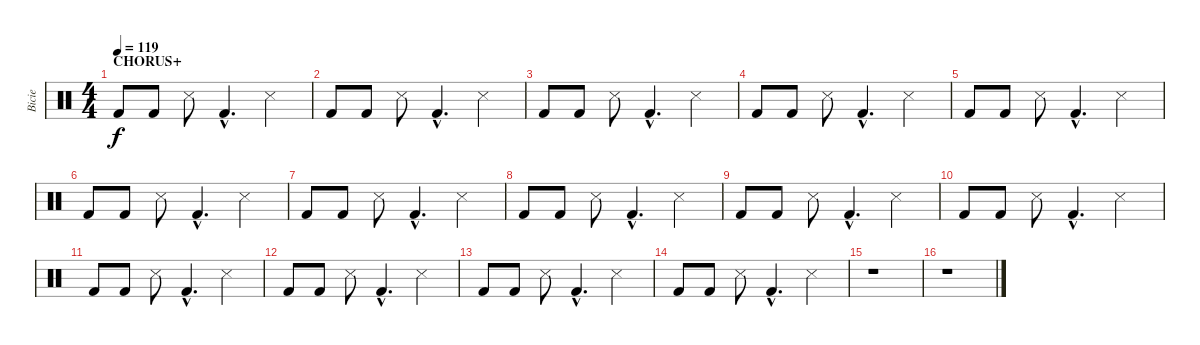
\track ("Bicie" "Bicie") {instrument percussion}
\staff {score}
\articulation defaults
\ts (4 4)
\section ("" "CHORUS+")
\tempo 119
\clef neutral
\ks c "Kick (hit) 2".8{dy f} "Kick (hit) 2".8 "Metronome (hit)".8 "Kick (hit) 2"{hac}.4{d} "Metronome (hit)".4
|
"Kick (hit) 2".8 "Kick (hit) 2".8 "Metronome (hit)".8 "Kick (hit) 2"{hac}.4{d} "Metronome (hit)".4 |
"Kick (hit) 2".8 "Kick (hit) 2".8 "Metronome (hit)".8 "Kick (hit) 2"{hac}.4{d} "Metronome (hit)".4 |
"Kick (hit) 2".8 "Kick (hit) 2".8 "Metronome (hit)".8 "Kick (hit) 2"{hac}.4{d} "Metronome (hit)".4 |
"Kick (hit) 2".8 "Kick (hit) 2".8 "Metronome (hit)".8 "Kick (hit) 2"{hac}.4{d} "Metronome (hit)".4 |
"Kick (hit) 2".8 "Kick (hit) 2".8 "Metronome (hit)".8 "Kick (hit) 2"{hac}.4{d} "Metronome (hit)".4 |
"Kick (hit) 2".8 "Kick (hit) 2".8 "Metronome (hit)".8 "Kick (hit) 2"{hac}.4{d} "Metronome (hit)".4 |
"Kick (hit) 2".8 "Kick (hit) 2".8 "Metronome (hit)".8 "Kick (hit) 2"{hac}.4{d} "Metronome (hit)".4 |
"Kick (hit) 2".8 "Kick (hit) 2".8 "Metronome (hit)".8 "Kick (hit) 2"{hac}.4{d} "Metronome (hit)".4 |
"Kick (hit) 2".8 "Kick (hit) 2".8 "Metronome (hit)".8 "Kick (hit) 2"{hac}.4{d} "Metronome (hit)".4 |
"Kick (hit) 2".8 "Kick (hit) 2".8 "Metronome (hit)".8 "Kick (hit) 2"{hac}.4{d} "Metronome (hit)".4 |
"Kick (hit) 2".8 "Kick (hit) 2".8 "Metronome (hit)".8 "Kick (hit) 2"{hac}.4{d} "Metronome (hit)".4 |
"Kick (hit) 2".8 "Kick (hit) 2".8 "Metronome (hit)".8 "Kick (hit) 2"{hac}.4{d} "Metronome (hit)".4 |
"Kick (hit) 2".8 "Kick (hit) 2".8 "Metronome (hit)".8 "Kick (hit) 2"{hac}.4{d} "Metronome (hit)".4 |
r.1 |
r.1
